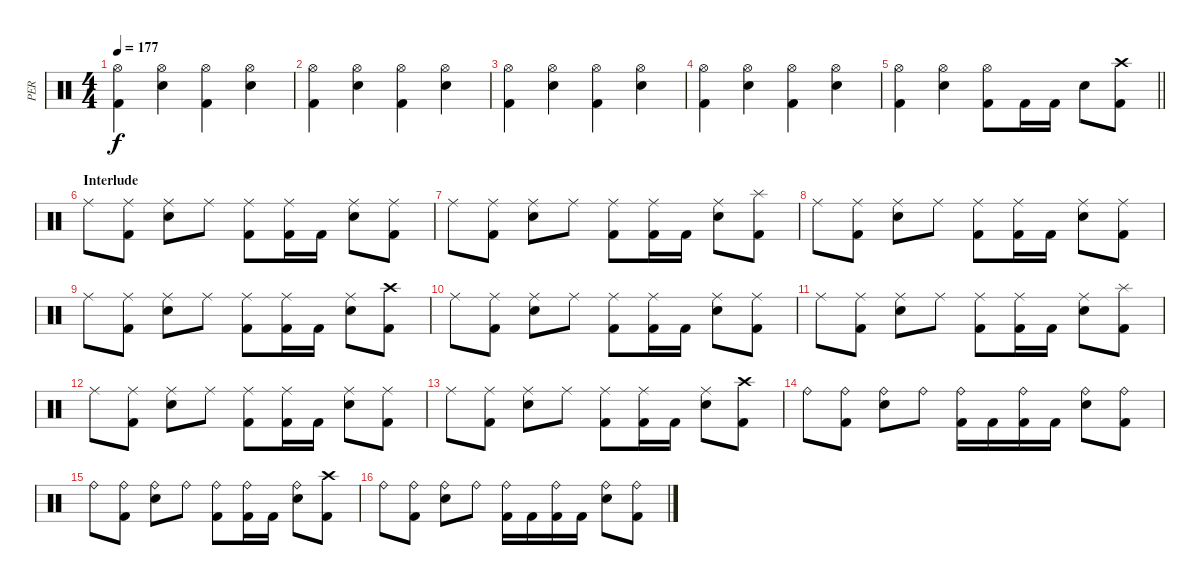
\track ("PER" "PER") {instrument percussion}
\staff {score}
\articulation defaults
\ts (4 4)
\tempo 177
\clef neutral
\ks c
("Hi-Hat (open)" "Kick (hit) 2").4{dy f} ("Hi-Hat (open)" "Electric Snare (hit)").4 ("Hi-Hat (open)" "Kick (hit) 2").4 ("Hi-Hat (open)" "Electric Snare (hit)").4 |
("Hi-Hat (open)" "Kick (hit) 2").4 ("Hi-Hat (open)" "Electric Snare (hit)").4 ("Hi-Hat (open)" "Kick (hit) 2").4 ("Hi-Hat (open)" "Electric Snare (hit)").4 |
("Hi-Hat (open)" "Kick (hit) 2").4 ("Hi-Hat (open)" "Electric Snare (hit)").4 ("Hi-Hat (open)" "Kick (hit) 2").4 ("Hi-Hat (open)" "Electric Snare (hit)").4 |
("Hi-Hat (open)" "Kick (hit) 2").4 ("Hi-Hat (open)" "Electric Snare (hit)").4 ("Hi-Hat (open)" "Kick (hit) 2").4 ("Hi-Hat (open)" "Electric Snare (hit)").4 |
\barLineRight lightlight
("Hi-Hat (open)" "Kick (hit) 2").4 ("Hi-Hat (open)" "Electric Snare (hit)").4 ("Hi-Hat (open)" "Kick (hit) 2").8 "Kick (hit) 2".16 "Kick (hit) 2".16 "Electric Snare (hit)".8 ("Crash high (hit)" "Kick (hit) 2").8 |
\section ("" "Interlude")
"Ride (middle)".8 ("Ride (middle)" "Kick (hit) 2").8 ("Ride (middle)" "Electric Snare (hit)").8 "Ride (middle)".8 ("Ride (middle)" "Kick (hit) 2").8 ("Ride (middle)" "Kick (hit) 2").16 "Kick (hit) 2".16 ("Ride (middle)" "Electric Snare (hit)").8 ("Ride (middle)" "Kick (hit) 2").8 |
"Ride (middle)".8 ("Ride (middle)" "Kick (hit) 2").8 ("Ride (middle)" "Electric Snare (hit)").8 "Ride (middle)".8 ("Ride (middle)" "Kick (hit) 2").8 ("Ride (middle)" "Kick (hit) 2").16 "Kick (hit) 2".16 ("Ride (middle)" "Electric Snare (hit)").8 ("Splash (hit)" "Kick (hit) 2").8 |
"Ride (middle)".8 ("Ride (middle)" "Kick (hit) 2").8 ("Ride (middle)" "Electric Snare (hit)").8 "Ride (middle)".8 ("Ride (middle)" "Kick (hit) 2").8 ("Ride (middle)" "Kick (hit) 2").16 "Kick (hit) 2".16 ("Ride (middle)" "Electric Snare (hit)").8 ("Ride (middle)" "Kick (hit) 2").8 |
"Ride (middle)".8 ("Ride (middle)" "Kick (hit) 2").8 ("Ride (middle)" "Electric Snare (hit)").8 "Ride (middle)".8 ("Ride (middle)" "Kick (hit) 2").8 ("Ride (middle)" "Kick (hit) 2").16 "Kick (hit) 2".16 ("Ride (middle)" "Electric Snare (hit)").8 ("Crash high (hit)" "Kick (hit) 2").8 |
"Ride (middle)".8 ("Ride (middle)" "Kick (hit) 2").8 ("Ride (middle)" "Electric Snare (hit)").8 "Ride (middle)".8 ("Ride (middle)" "Kick (hit) 2").8 ("Ride (middle)" "Kick (hit) 2").16 "Kick (hit) 2".16 ("Ride (middle)" "Electric Snare (hit)").8 ("Ride (middle)" "Kick (hit) 2").8 |
"Ride (middle)".8 ("Ride (middle)" "Kick (hit) 2").8 ("Ride (middle)" "Electric Snare (hit)").8 "Ride (middle)".8 ("Ride (middle)" "Kick (hit) 2").8 ("Ride (middle)" "Kick (hit) 2").16 "Kick (hit) 2".16 ("Ride (middle)" "Electric Snare (hit)").8 ("Splash (hit)" "Kick (hit) 2").8 |
"Ride (middle)".8 ("Ride (middle)" "Kick (hit) 2").8 ("Ride (middle)" "Electric Snare (hit)").8 "Ride (middle)".8 ("Ride (middle)" "Kick (hit) 2").8 ("Ride (middle)" "Kick (hit) 2").16 "Kick (hit) 2".16 ("Ride (middle)" "Electric Snare (hit)").8 ("Ride (middle)" "Kick (hit) 2").8 |
"Ride (middle)".8 ("Ride (middle)" "Kick (hit) 2").8 ("Ride (middle)" "Electric Snare (hit)").8 "Ride (middle)".8 ("Ride (middle)" "Kick (hit) 2").8 ("Ride (middle)" "Kick (hit) 2").16 "Kick (hit) 2".16 ("Ride (middle)" "Electric Snare (hit)").8 ("Crash high (hit)" "Kick (hit) 2").8 |
"Ride (bell)".8 ("Ride (bell)" "Kick (hit) 2").8 ("Ride (bell)" "Electric Snare (hit)").8 "Ride (bell)".8 ("Ride (bell)" "Kick (hit) 2").16 "Kick (hit) 2".16 ("Ride (bell)" "Kick (hit) 2").16 "Kick (hit) 2".16 ("Ride (bell)" "Electric Snare (hit)").8 ("Ride (bell)" "Kick (hit) 2").8 |
"Ride (bell)".8 ("Ride (bell)" "Kick (hit) 2").8 ("Ride (bell)" "Electric Snare (hit)").8 "Ride (bell)".8 ("Ride (bell)" "Kick (hit) 2").8 ("Ride (bell)" "Kick (hit) 2").16 "Kick (hit) 2".16 ("Ride (bell)" "Electric Snare (hit)").8 ("Crash high (hit)" "Kick (hit) 2").8 |
"Ride (bell)".8 ("Ride (bell)" "Kick (hit) 2").8 ("Ride (bell)" "Electric Snare (hit)").8 "Ride (bell)".8 ("Ride (bell)" "Kick (hit) 2").16 "Kick (hit) 2".16 ("Ride (bell)" "Kick (hit) 2").16 "Kick (hit) 2".16 ("Ride (bell)" "Electric Snare (hit)").8 ("Ride (bell)" "Kick (hit) 2").8
